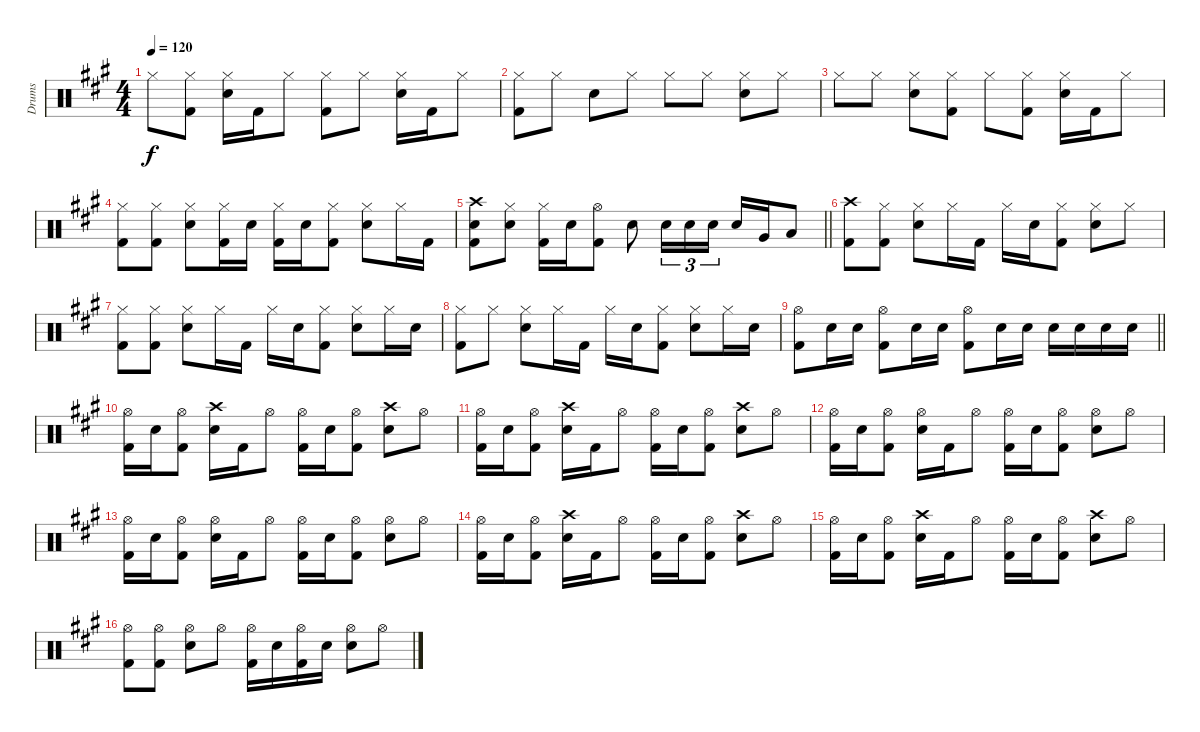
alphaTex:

\track ("Drums" "Drums") {instrument percussion}
\staff {score}
\articulation defaults
\ts (4 4)
\tempo 120
\clef neutral
\ks a "Hi-Hat (closed)".8{dy f}
("Hi-Hat (closed)" "Kick (hit) 2").8 ("Hi-Hat (closed)" "Electric Snare (hit)").16 "Kick (hit) 2".16 "Hi-Hat (closed)".8 ("Hi-Hat (closed)" "Kick (hit) 2").8 "Hi-Hat (closed)".8 ("Hi-Hat (closed)" "Electric Snare (hit)").16 "Kick (hit) 2".16 "Hi-Hat (closed)".8 |
("Hi-Hat (closed)" "Kick (hit) 2").8 "Hi-Hat (closed)".8 "Electric Snare (hit)".8 "Hi-Hat (closed)".8 "Hi-Hat (closed)".8 "Hi-Hat (closed)".8 ("Hi-Hat (closed)" "Electric Snare (hit)").8 "Hi-Hat (closed)".8 |
"Hi-Hat (closed)".8 "Hi-Hat (closed)".8 ("Hi-Hat (closed)" "Electric Snare (hit)").8 ("Hi-Hat (closed)" "Kick (hit) 2").8 "Hi-Hat (closed)".8 ("Hi-Hat (closed)" "Kick (hit) 2").8 ("Hi-Hat (closed)" "Electric Snare (hit)").16 "Kick (hit) 2".16 "Hi-Hat (closed)".8 |
("Hi-Hat (closed)" "Kick (hit) 2").8 ("Hi-Hat (closed)" "Kick (hit) 2").8 ("Hi-Hat (closed)" "Electric Snare (hit)").8 ("Hi-Hat (closed)" "Kick (hit) 2").16 "Electric Snare (hit)".16 ("Hi-Hat (closed)" "Kick (hit) 2").16 "Electric Snare (hit)".16 ("Hi-Hat (closed)" "Kick (hit) 2").8 ("Hi-Hat (closed)" "Electric Snare (hit)").8 "Hi-Hat (closed)".16 "Kick (hit) 2".16 |
\barLineRight lightlight
("Crash high (hit)" "Electric Snare (hit)" "Kick (hit) 2").8 ("Hi-Hat (closed)" "Electric Snare (hit)").8 ("Hi-Hat (closed)" "Kick (hit) 2").16 "Electric Snare (hit)".16 ("Hi-Hat (open)" "Kick (hit) 2").8 "Electric Snare (hit)".8 "Electric Snare (hit)".16{tu (3 2)} "Electric Snare (hit)".16{tu (3 2)} "Electric Snare (hit)".16{tu (3 2)} "Electric Snare (hit)".16 "Very Low Tom (hit)".16 "Low Floor Tom (hit)".8 |
("Crash high (hit)" "Kick (hit) 2").8 ("Hi-Hat (closed)" "Kick (hit) 2").8 ("Hi-Hat (closed)" "Electric Snare (hit)").8 "Hi-Hat (closed)".16 "Kick (hit) 2".16 "Hi-Hat (closed)".16 "Electric Snare (hit)".16 ("Hi-Hat (closed)" "Kick (hit) 2").8 ("Hi-Hat (closed)" "Electric Snare (hit)").8 "Hi-Hat (closed)".8 |
("Hi-Hat (closed)" "Kick (hit) 2").8 ("Hi-Hat (closed)" "Kick (hit) 2").8 ("Hi-Hat (closed)" "Electric Snare (hit)").8 "Hi-Hat (closed)".16 "Kick (hit) 2".16 "Hi-Hat (closed)".16 "Electric Snare (hit)".16 ("Hi-Hat (closed)" "Kick (hit) 2").8 ("Hi-Hat (closed)" "Electric Snare (hit)").8 "Hi-Hat (closed)".16 "Electric Snare (hit)".16 |
("Hi-Hat (closed)" "Kick (hit) 2").8 "Hi-Hat (closed)".8 ("Hi-Hat (closed)" "Electric Snare (hit)").8 "Hi-Hat (closed)".16 "Kick (hit) 2".16 "Hi-Hat (closed)".16 "Electric Snare (hit)".16 ("Hi-Hat (closed)" "Kick (hit) 2").8 ("Hi-Hat (closed)" "Electric Snare (hit)").8 "Hi-Hat (closed)".16 "Electric Snare (hit)".16 |
\barLineRight lightlight
("Hi-Hat (open)" "Kick (hit) 2").8 "Electric Snare (hit)".16 "Electric Snare (hit)".16 ("Hi-Hat (open)" "Kick (hit) 2").8 "Electric Snare (hit)".16 "Electric Snare (hit)".16 ("Hi-Hat (open)" "Kick (hit) 2").8 "Electric Snare (hit)".16 "Electric Snare (hit)".16 "Electric Snare (hit)".16 "Electric Snare (hit)".16 "Electric Snare (hit)".16 "Electric Snare (hit)".16 |
("Hi-Hat (open)" "Kick (hit) 2").16 "Electric Snare (hit)".16 ("Hi-Hat (open)" "Kick (hit) 2").8 ("Crash high (hit)" "Electric Snare (hit)").16 "Kick (hit) 2".16 "Hi-Hat (open)".8 ("Hi-Hat (open)" "Kick (hit) 2").16 "Electric Snare (hit)".16 ("Hi-Hat (open)" "Kick (hit) 2").8 ("Crash high (hit)" "Electric Snare (hit)").8 "Hi-Hat (open)".8 |
("Hi-Hat (open)" "Kick (hit) 2").16 "Electric Snare (hit)".16 ("Hi-Hat (open)" "Kick (hit) 2").8 ("Crash high (hit)" "Electric Snare (hit)").16 "Kick (hit) 2".16 "Hi-Hat (open)".8 ("Hi-Hat (open)" "Kick (hit) 2").16 "Electric Snare (hit)".16 ("Hi-Hat (open)" "Kick (hit) 2").8 ("Crash high (hit)" "Electric Snare (hit)").8 "Hi-Hat (open)".8 |
("Hi-Hat (open)" "Kick (hit) 2").16 "Electric Snare (hit)".16 ("Hi-Hat (open)" "Kick (hit) 2").8 ("Hi-Hat (open)" "Electric Snare (hit)").16 "Kick (hit) 2".16 "Hi-Hat (open)".8 ("Hi-Hat (open)" "Kick (hit) 2").16 "Electric Snare (hit)".16 ("Hi-Hat (open)" "Kick (hit) 2").8 ("Hi-Hat (open)" "Electric Snare (hit)").8 "Hi-Hat (open)".8 |
("Hi-Hat (open)" "Kick (hit) 2").16 "Electric Snare (hit)".16 ("Hi-Hat (open)" "Kick (hit) 2").8 ("Hi-Hat (open)" "Electric Snare (hit)").16 "Kick (hit) 2".16 "Hi-Hat (open)".8 ("Hi-Hat (open)" "Kick (hit) 2").16 "Electric Snare (hit)".16 ("Hi-Hat (open)" "Kick (hit) 2").8 ("Hi-Hat (open)" "Electric Snare (hit)").8 "Hi-Hat (open)".8 |
("Hi-Hat (open)" "Kick (hit) 2").16 "Electric Snare (hit)".16 ("Hi-Hat (open)" "Kick (hit) 2").8 ("Crash high (hit)" "Electric Snare (hit)").16 "Kick (hit) 2".16 "Hi-Hat (open)".8 ("Hi-Hat (open)" "Kick (hit) 2").16 "Electric Snare (hit)".16 ("Hi-Hat (open)" "Kick (hit) 2").8 ("Crash high (hit)" "Electric Snare (hit)").8 "Hi-Hat (open)".8 |
("Hi-Hat (open)" "Kick (hit) 2").16 "Electric Snare (hit)".16 ("Hi-Hat (open)" "Kick (hit) 2").8 ("Crash high (hit)" "Electric Snare (hit)").16 "Kick (hit) 2".16 "Hi-Hat (open)".8 ("Hi-Hat (open)" "Kick (hit) 2").16 "Electric Snare (hit)".16 ("Hi-Hat (open)" "Kick (hit) 2").8 ("Crash high (hit)" "Electric Snare (hit)").8 "Hi-Hat (open)".8 |
("Hi-Hat (open)" "Kick (hit) 2").8 ("Hi-Hat (open)" "Kick (hit) 2").8 ("Hi-Hat (open)" "Electric Snare (hit)").8 "Hi-Hat (open)".8 ("Hi-Hat (open)" "Kick (hit) 2").16 "Electric Snare (hit)".16 ("Hi-Hat (open)" "Kick (hit) 2").16 "Electric Snare (hit)".16 ("Hi-Hat (open)" "Electric Snare (hit)").8 "Hi-Hat (open)".8
